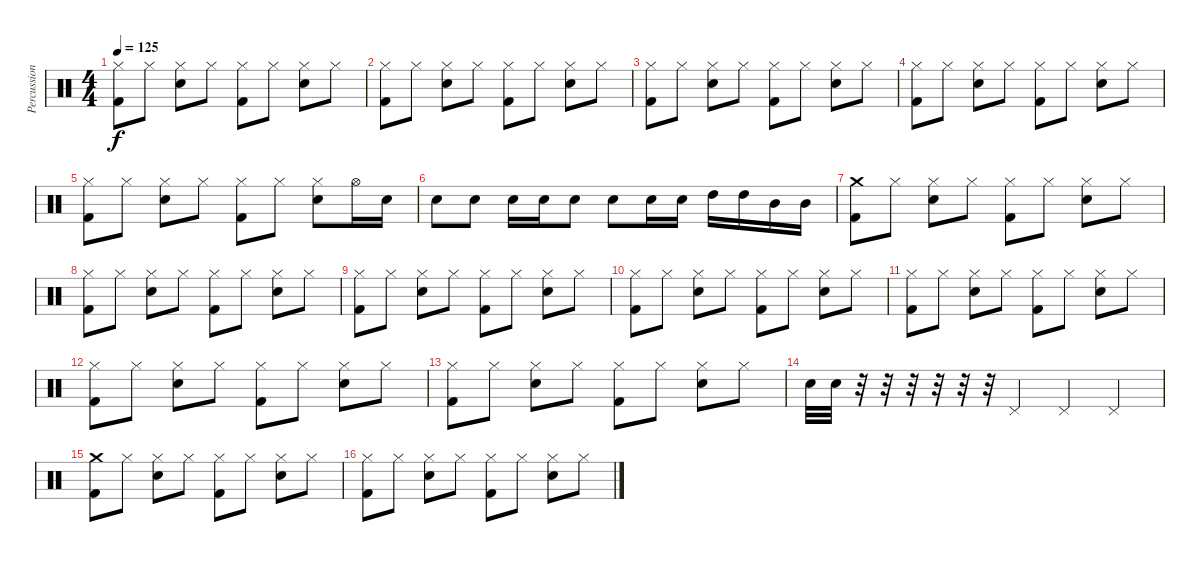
\track ("Percussions" "Percussion") {instrument percussion}
\staff {score}
\articulation defaults
\ts (4 4)
\tempo 125
\clef neutral
\ks c
("Hi-Hat (closed)" "Kick (hit) 2").8{dy f} "Hi-Hat (closed)".8 ("Hi-Hat (closed)" "Snare (hit) 2").8 "Hi-Hat (closed)".8 ("Hi-Hat (closed)" "Kick (hit) 2").8 "Hi-Hat (closed)".8 ("Hi-Hat (closed)" "Snare (hit) 2").8 "Hi-Hat (closed)".8 |
("Hi-Hat (closed)" "Kick (hit) 2").8 "Hi-Hat (closed)".8 ("Hi-Hat (closed)" "Snare (hit) 2").8 "Hi-Hat (closed)".8 ("Hi-Hat (closed)" "Kick (hit) 2").8 "Hi-Hat (closed)".8 ("Hi-Hat (closed)" "Snare (hit) 2").8 "Hi-Hat (closed)".8 |
("Hi-Hat (closed)" "Kick (hit) 2").8 "Hi-Hat (closed)".8 ("Hi-Hat (closed)" "Snare (hit) 2").8 "Hi-Hat (closed)".8 ("Hi-Hat (closed)" "Kick (hit) 2").8 "Hi-Hat (closed)".8 ("Hi-Hat (closed)" "Snare (hit) 2").8 "Hi-Hat (closed)".8 |
("Hi-Hat (closed)" "Kick (hit) 2").8 "Hi-Hat (closed)".8 ("Hi-Hat (closed)" "Snare (hit) 2").8 "Hi-Hat (closed)".8 ("Hi-Hat (closed)" "Kick (hit) 2").8 "Hi-Hat (closed)".8 ("Hi-Hat (closed)" "Snare (hit) 2").8 "Hi-Hat (closed)".8 |
("Hi-Hat (closed)" "Kick (hit) 2").8 "Hi-Hat (closed)".8 ("Hi-Hat (closed)" "Snare (hit) 2").8 "Hi-Hat (closed)".8 ("Hi-Hat (closed)" "Kick (hit) 2").8 "Hi-Hat (closed)".8 ("Hi-Hat (closed)" "Snare (hit) 2").8 "Hi-Hat (open)".16 "Snare (hit) 2".16 |
"Snare (hit) 2".8 "Snare (hit) 2".8 "Snare (hit) 2".16 "Snare (hit) 2".16 "Snare (hit) 2".8 "Snare (hit) 2".8 "Snare (hit) 2".16 "Snare (hit) 2".16 "High Tom (hit)".16 "High Tom (hit)".16 "Mid Tom (hit)".16 "Mid Tom (hit)".16 |
("Crash medium (hit)" "Kick (hit) 2").8 "Hi-Hat (closed)".8 ("Hi-Hat (closed)" "Snare (hit) 2").8 "Hi-Hat (closed)".8 ("Hi-Hat (closed)" "Kick (hit) 2").8 "Hi-Hat (closed)".8 ("Hi-Hat (closed)" "Snare (hit) 2").8 "Hi-Hat (closed)".8 |
("Hi-Hat (closed)" "Kick (hit) 2").8 "Hi-Hat (closed)".8 ("Hi-Hat (closed)" "Snare (hit) 2").8 "Hi-Hat (closed)".8 ("Hi-Hat (closed)" "Kick (hit) 2").8 "Hi-Hat (closed)".8 ("Hi-Hat (closed)" "Snare (hit) 2").8 "Hi-Hat (closed)".8 |
("Hi-Hat (closed)" "Kick (hit) 2").8 "Hi-Hat (closed)".8 ("Hi-Hat (closed)" "Snare (hit) 2").8 "Hi-Hat (closed)".8 ("Hi-Hat (closed)" "Kick (hit) 2").8 "Hi-Hat (closed)".8 ("Hi-Hat (closed)" "Snare (hit) 2").8 "Hi-Hat (closed)".8 |
("Hi-Hat (closed)" "Kick (hit) 2").8 "Hi-Hat (closed)".8 ("Hi-Hat (closed)" "Snare (hit) 2").8 "Hi-Hat (closed)".8 ("Hi-Hat (closed)" "Kick (hit) 2").8 "Hi-Hat (closed)".8 ("Hi-Hat (closed)" "Snare (hit) 2").8 "Hi-Hat (closed)".8 |
("Hi-Hat (closed)" "Kick (hit) 2").8 "Hi-Hat (closed)".8 ("Hi-Hat (closed)" "Snare (hit) 2").8 "Hi-Hat (closed)".8 ("Hi-Hat (closed)" "Kick (hit) 2").8 "Hi-Hat (closed)".8 ("Hi-Hat (closed)" "Snare (hit) 2").8 "Hi-Hat (closed)".8 |
("Hi-Hat (closed)" "Kick (hit) 2").8 "Hi-Hat (closed)".8 ("Hi-Hat (closed)" "Snare (hit) 2").8 "Hi-Hat (closed)".8 ("Hi-Hat (closed)" "Kick (hit) 2").8 "Hi-Hat (closed)".8 ("Hi-Hat (closed)" "Snare (hit) 2").8 "Hi-Hat (closed)".8 |
("Hi-Hat (closed)" "Kick (hit) 2").8 "Hi-Hat (closed)".8 ("Hi-Hat (closed)" "Snare (hit) 2").8 "Hi-Hat (closed)".8 ("Hi-Hat (closed)" "Kick (hit) 2").8 "Hi-Hat (closed)".8 ("Hi-Hat (closed)" "Snare (hit) 2").8 "Hi-Hat (closed)".8 |
"Snare (hit) 2".32 "Snare (hit) 2".32 r.32 r.32 r.32 r.32 r.32 r.32 "Pedal Hi-Hat (hit)".4 "Pedal Hi-Hat (hit)".4 "Pedal Hi-Hat (hit)".4 |
("Crash medium (hit)" "Kick (hit) 2").8 "Hi-Hat (closed)".8 ("Hi-Hat (closed)" "Snare (hit) 2").8 "Hi-Hat (closed)".8 ("Hi-Hat (closed)" "Kick (hit) 2").8 "Hi-Hat (closed)".8 ("Hi-Hat (closed)" "Snare (hit) 2").8 "Hi-Hat (closed)".8 |
("Hi-Hat (closed)" "Kick (hit) 2").8 "Hi-Hat (closed)".8 ("Hi-Hat (closed)" "Snare (hit) 2").8 "Hi-Hat (closed)".8 ("Hi-Hat (closed)" "Kick (hit) 2").8 "Hi-Hat (closed)".8 ("Hi-Hat (closed)" "Snare (hit) 2").8 "Hi-Hat (closed)".8
